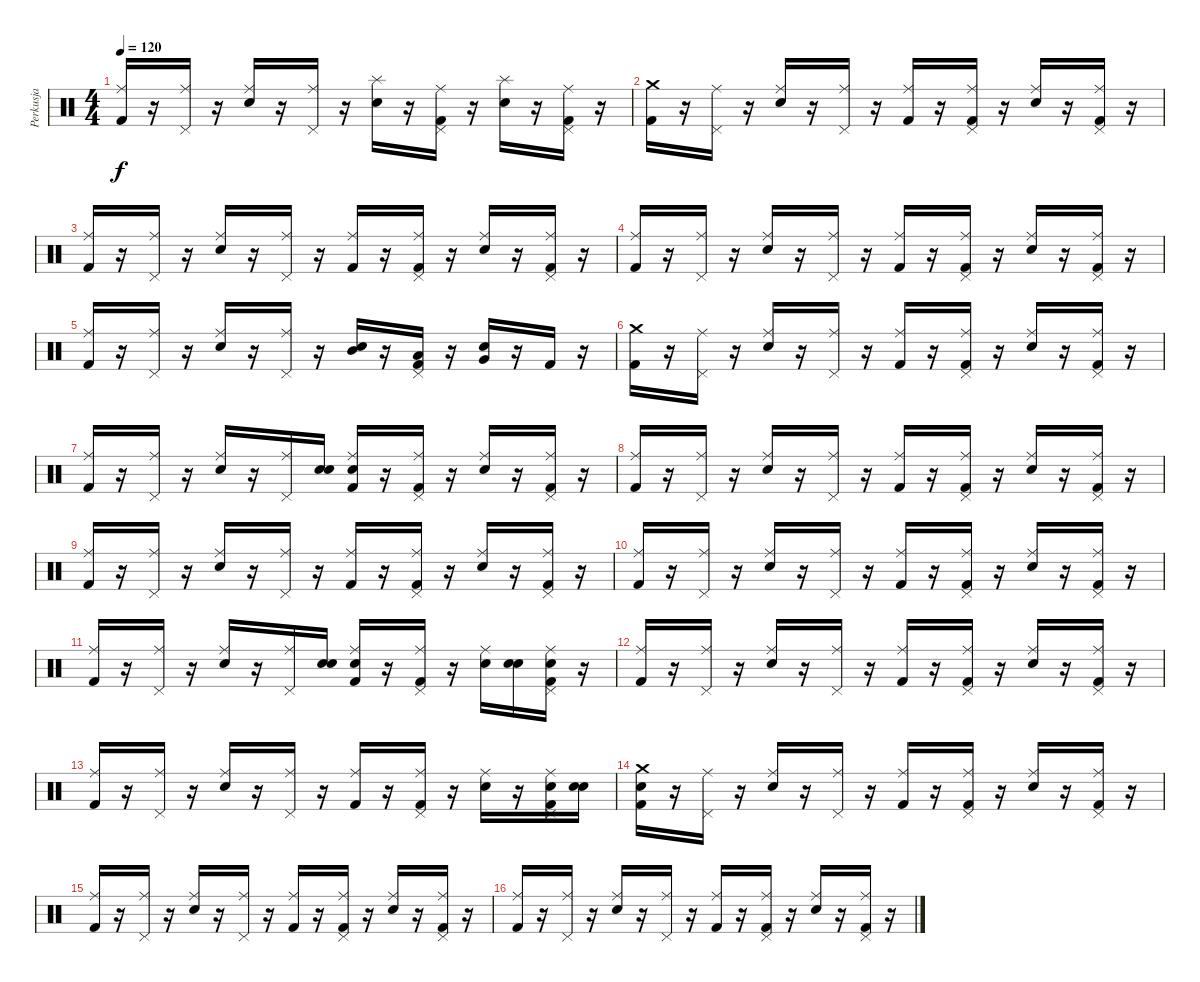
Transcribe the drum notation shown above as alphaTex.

\track ("Perkusja" "Perkusja") {instrument percussion}
\staff {score}
\articulation defaults
\ts (4 4)
\tempo 120
\clef neutral
\ks c
("Ride (middle)" "Kick (hit) 2").16{dy f} r.16 ("Pedal Hi-Hat (hit)" "Ride (middle)").16 r.16 ("Ride (middle)" "Snare (hit) 2").16 r.16 ("Ride (middle)" "Pedal Hi-Hat (hit)").16 r.16 ("Splash (hit)" "Snare (hit) 2").16 r.16 ("Ride (middle)" "Pedal Hi-Hat (hit)" "Kick (hit) 2").16 r.16 ("Snare (hit) 2" "Splash (hit)").16 r.16 ("Kick (hit) 2" "Ride (middle)" "Pedal Hi-Hat (hit)").16 r.16 |
("Crash medium (hit)" "Kick (hit) 2").16 r.16 ("Pedal Hi-Hat (hit)" "Ride (middle)").16 r.16 ("Snare (hit) 2" "Ride (middle)").16 r.16 ("Pedal Hi-Hat (hit)" "Ride (middle)").16 r.16 ("Ride (middle)" "Kick (hit) 2").16 r.16 ("Kick (hit) 2" "Ride (middle)" "Pedal Hi-Hat (hit)").16 r.16 ("Ride (middle)" "Snare (hit) 2").16 r.16 ("Ride (middle)" "Kick (hit) 2" "Pedal Hi-Hat (hit)").16 r.16 |
("Kick (hit) 2" "Ride (middle)").16 r.16 ("Pedal Hi-Hat (hit)" "Ride (middle)").16 r.16 ("Ride (middle)" "Snare (hit) 2").16 r.16 ("Pedal Hi-Hat (hit)" "Ride (middle)").16 r.16 ("Ride (middle)" "Kick (hit) 2").16 r.16 ("Ride (middle)" "Pedal Hi-Hat (hit)" "Kick (hit) 2").16 r.16 ("Ride (middle)" "Snare (hit) 2").16 r.16 ("Ride (middle)" "Pedal Hi-Hat (hit)" "Kick (hit) 2").16 r.16 |
("Ride (middle)" "Kick (hit) 2").16 r.16 ("Ride (middle)" "Pedal Hi-Hat (hit)").16 r.16 ("Ride (middle)" "Snare (hit) 2").16 r.16 ("Pedal Hi-Hat (hit)" "Ride (middle)").16 r.16 ("Ride (middle)" "Kick (hit) 2").16 r.16 ("Ride (middle)" "Kick (hit) 2" "Pedal Hi-Hat (hit)").16 r.16 ("Ride (middle)" "Snare (hit) 2").16 r.16 ("Pedal Hi-Hat (hit)" "Kick (hit) 2" "Ride (middle)").16 r.16 |
("Kick (hit) 2" "Ride (middle)").16 r.16 ("Ride (middle)" "Pedal Hi-Hat (hit)").16 r.16 ("Ride (middle)" "Snare (hit) 2").16 r.16 ("Ride (middle)" "Pedal Hi-Hat (hit)").16 r.16 ("Electric Snare (hit)" "Mid Tom (hit)").16 r.16 ("Kick (hit) 2" "Low Tom (hit)" "Pedal Hi-Hat (hit)").16 r.16 ("Very Low Tom (hit)" "Electric Snare (hit)").16 r.16 "Kick (hit) 2".16 r.16 |
("Crash medium (hit)" "Kick (hit) 2").16 r.16 ("Pedal Hi-Hat (hit)" "Ride (middle)").16 r.16 ("Snare (hit) 2" "Ride (middle)").16 r.16 ("Pedal Hi-Hat (hit)" "Ride (middle)").16 r.16 ("Kick (hit) 2" "Ride (middle)").16 r.16 ("Ride (middle)" "Kick (hit) 2" "Pedal Hi-Hat (hit)").16 r.16 ("Ride (middle)" "Snare (hit) 2").16 r.16 ("Ride (middle)" "Pedal Hi-Hat (hit)" "Kick (hit) 2").16 r.16 |
("Ride (middle)" "Kick (hit) 2").16 r.16 ("Pedal Hi-Hat (hit)" "Ride (middle)").16 r.16 ("Snare (hit) 2" "Ride (middle)").16 r.16 ("Pedal Hi-Hat (hit)" "Ride (middle)").16 ("Snare (hit)" "Snare (hit) 2").16 ("Snare (hit)" "Ride (middle)" "Kick (hit) 2").16 r.16 ("Ride (middle)" "Kick (hit) 2" "Pedal Hi-Hat (hit)").16 r.16 ("Snare (hit) 2" "Ride (middle)").16 r.16 ("Kick (hit) 2" "Ride (middle)" "Pedal Hi-Hat (hit)").16 r.16 |
("Ride (middle)" "Kick (hit) 2").16 r.16 ("Ride (middle)" "Pedal Hi-Hat (hit)").16 r.16 ("Snare (hit) 2" "Ride (middle)").16 r.16 ("Pedal Hi-Hat (hit)" "Ride (middle)").16 r.16 ("Ride (middle)" "Kick (hit) 2").16 r.16 ("Pedal Hi-Hat (hit)" "Kick (hit) 2" "Ride (middle)").16 r.16 ("Snare (hit) 2" "Ride (middle)").16 r.16 ("Ride (middle)" "Pedal Hi-Hat (hit)" "Kick (hit) 2").16 r.16 |
("Ride (middle)" "Kick (hit) 2").16 r.16 ("Pedal Hi-Hat (hit)" "Ride (middle)").16 r.16 ("Ride (middle)" "Snare (hit) 2").16 r.16 ("Pedal Hi-Hat (hit)" "Ride (middle)").16 r.16 ("Kick (hit) 2" "Ride (middle)").16 r.16 ("Kick (hit) 2" "Pedal Hi-Hat (hit)" "Ride (middle)").16 r.16 ("Snare (hit) 2" "Ride (middle)").16 r.16 ("Ride (middle)" "Pedal Hi-Hat (hit)" "Kick (hit) 2").16 r.16 |
("Kick (hit) 2" "Ride (middle)").16 r.16 ("Pedal Hi-Hat (hit)" "Ride (middle)").16 r.16 ("Ride (middle)" "Snare (hit) 2").16 r.16 ("Ride (middle)" "Pedal Hi-Hat (hit)").16 r.16 ("Ride (middle)" "Kick (hit) 2").16 r.16 ("Kick (hit) 2" "Ride (middle)" "Pedal Hi-Hat (hit)").16 r.16 ("Ride (middle)" "Snare (hit) 2").16 r.16 ("Ride (middle)" "Kick (hit) 2" "Pedal Hi-Hat (hit)").16 r.16 |
("Ride (middle)" "Kick (hit) 2").16 r.16 ("Ride (middle)" "Pedal Hi-Hat (hit)").16 r.16 ("Ride (middle)" "Snare (hit) 2").16 r.16 ("Pedal Hi-Hat (hit)" "Ride (middle)").16 ("Snare (hit)" "Snare (hit) 2").16 ("Snare (hit)" "Kick (hit) 2" "Ride (middle)").16 r.16 ("Ride (middle)" "Pedal Hi-Hat (hit)" "Kick (hit) 2").16 r.16 ("Snare (hit) 2" "Ride (middle)").16 ("Snare (hit)" "Snare (hit) 2").16 ("Snare (hit)" "Kick (hit) 2" "Pedal Hi-Hat (hit)" "Ride (middle)").16 r.16 |
("Kick (hit) 2" "Ride (middle)").16 r.16 ("Ride (middle)" "Pedal Hi-Hat (hit)").16 r.16 ("Snare (hit) 2" "Ride (middle)").16 r.16 ("Ride (middle)" "Pedal Hi-Hat (hit)").16 r.16 ("Kick (hit) 2" "Ride (middle)").16 r.16 ("Kick (hit) 2" "Pedal Hi-Hat (hit)" "Ride (middle)").16 r.16 ("Ride (middle)" "Snare (hit) 2").16 r.16 ("Pedal Hi-Hat (hit)" "Kick (hit) 2" "Ride (middle)").16 r.16 |
("Ride (middle)" "Kick (hit) 2").16 r.16 ("Ride (middle)" "Pedal Hi-Hat (hit)").16 r.16 ("Ride (middle)" "Snare (hit) 2").16 r.16 ("Ride (middle)" "Pedal Hi-Hat (hit)").16 r.16 ("Kick (hit) 2" "Ride (middle)").16 r.16 ("Pedal Hi-Hat (hit)" "Ride (middle)" "Kick (hit) 2").16 r.16 ("Ride (middle)" "Snare (hit) 2").16 r.16 ("Snare (hit) 2" "Kick (hit) 2" "Ride (middle)" "Pedal Hi-Hat (hit)").16 ("Snare (hit)" "Snare (hit) 2").16 |
("Snare (hit)" "Crash medium (hit)" "Kick (hit) 2").16 r.16 ("Pedal Hi-Hat (hit)" "Ride (middle)").16 r.16 ("Ride (middle)" "Snare (hit) 2").16 r.16 ("Pedal Hi-Hat (hit)" "Ride (middle)").16 r.16 ("Kick (hit) 2" "Ride (middle)").16 r.16 ("Kick (hit) 2" "Ride (middle)" "Pedal Hi-Hat (hit)").16 r.16 ("Ride (middle)" "Snare (hit) 2").16 r.16 ("Kick (hit) 2" "Ride (middle)" "Pedal Hi-Hat (hit)").16 r.16 |
("Ride (middle)" "Kick (hit) 2").16 r.16 ("Ride (middle)" "Pedal Hi-Hat (hit)").16 r.16 ("Snare (hit) 2" "Ride (middle)").16 r.16 ("Pedal Hi-Hat (hit)" "Ride (middle)").16 r.16 ("Kick (hit) 2" "Ride (middle)").16 r.16 ("Kick (hit) 2" "Ride (middle)" "Pedal Hi-Hat (hit)").16 r.16 ("Snare (hit) 2" "Ride (middle)").16 r.16 ("Ride (middle)" "Pedal Hi-Hat (hit)" "Kick (hit) 2").16 r.16 |
("Ride (middle)" "Kick (hit) 2").16 r.16 ("Ride (middle)" "Pedal Hi-Hat (hit)").16 r.16 ("Ride (middle)" "Snare (hit) 2").16 r.16 ("Pedal Hi-Hat (hit)" "Ride (middle)").16 r.16 ("Kick (hit) 2" "Ride (middle)").16 r.16 ("Pedal Hi-Hat (hit)" "Ride (middle)" "Kick (hit) 2").16 r.16 ("Snare (hit) 2" "Ride (middle)").16 r.16 ("Pedal Hi-Hat (hit)" "Ride (middle)" "Kick (hit) 2").16 r.16
